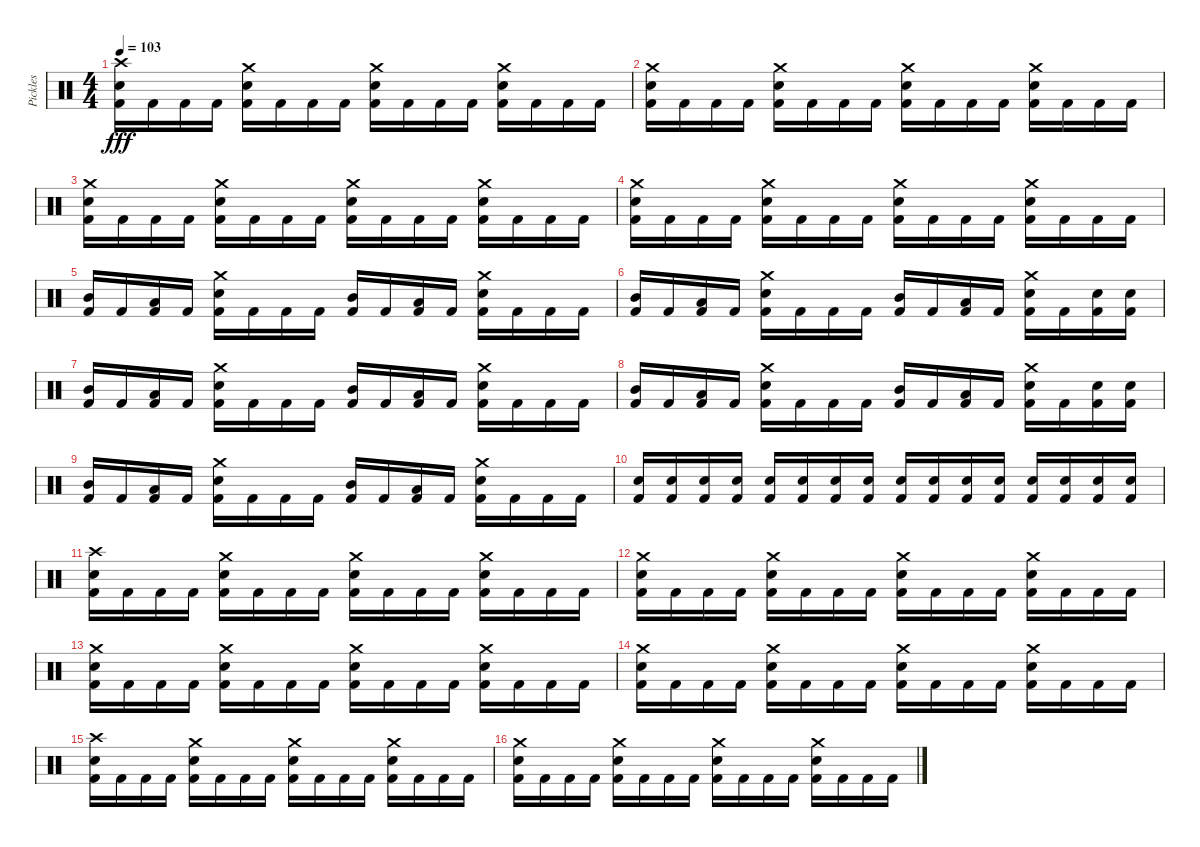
\track ("Pickles" "Pickles") {instrument percussion}
\staff {score}
\articulation defaults
\ts (4 4)
\tempo 103
\clef neutral
\ks c
("Crash high (hit)" "Electric Snare (hit)" "Kick (hit) 2").16{dy fff} "Kick (hit) 2".16 "Kick (hit) 2".16 "Kick (hit) 2".16 ("Crash medium (hit)" "Electric Snare (hit)" "Kick (hit) 2").16 "Kick (hit) 2".16 "Kick (hit) 2".16 "Kick (hit) 2".16 ("Crash medium (hit)" "Electric Snare (hit)" "Kick (hit) 2").16 "Kick (hit) 2".16 "Kick (hit) 2".16 "Kick (hit) 2".16 ("Crash medium (hit)" "Electric Snare (hit)" "Kick (hit) 2").16 "Kick (hit) 2".16 "Kick (hit) 2".16 "Kick (hit) 2".16 |
("Crash medium (hit)" "Electric Snare (hit)" "Kick (hit) 2").16 "Kick (hit) 2".16 "Kick (hit) 2".16 "Kick (hit) 2".16 ("Crash medium (hit)" "Electric Snare (hit)" "Kick (hit) 2").16 "Kick (hit) 2".16 "Kick (hit) 2".16 "Kick (hit) 2".16 ("Crash medium (hit)" "Electric Snare (hit)" "Kick (hit) 2").16 "Kick (hit) 2".16 "Kick (hit) 2".16 "Kick (hit) 2".16 ("Crash medium (hit)" "Electric Snare (hit)" "Kick (hit) 2").16 "Kick (hit) 2".16 "Kick (hit) 2".16 "Kick (hit) 2".16 |
("Crash medium (hit)" "Electric Snare (hit)" "Kick (hit) 2").16 "Kick (hit) 2".16 "Kick (hit) 2".16 "Kick (hit) 2".16 ("Crash medium (hit)" "Electric Snare (hit)" "Kick (hit) 2").16 "Kick (hit) 2".16 "Kick (hit) 2".16 "Kick (hit) 2".16 ("Crash medium (hit)" "Electric Snare (hit)" "Kick (hit) 2").16 "Kick (hit) 2".16 "Kick (hit) 2".16 "Kick (hit) 2".16 ("Crash medium (hit)" "Electric Snare (hit)" "Kick (hit) 2").16 "Kick (hit) 2".16 "Kick (hit) 2".16 "Kick (hit) 2".16 |
("Crash medium (hit)" "Electric Snare (hit)" "Kick (hit) 2").16 "Kick (hit) 2".16 "Kick (hit) 2".16 "Kick (hit) 2".16 ("Crash medium (hit)" "Electric Snare (hit)" "Kick (hit) 2").16 "Kick (hit) 2".16 "Kick (hit) 2".16 "Kick (hit) 2".16 ("Crash medium (hit)" "Electric Snare (hit)" "Kick (hit) 2").16 "Kick (hit) 2".16 "Kick (hit) 2".16 "Kick (hit) 2".16 ("Crash medium (hit)" "Electric Snare (hit)" "Kick (hit) 2").16 "Kick (hit) 2".16 "Kick (hit) 2".16 "Kick (hit) 2".16 |
("Mid Tom (hit)" "Kick (hit) 2").16 "Kick (hit) 2".16 ("Low Tom (hit)" "Kick (hit) 2").16 "Kick (hit) 2".16 ("Crash medium (hit)" "Electric Snare (hit)" "Kick (hit) 2").16 "Kick (hit) 2".16 "Kick (hit) 2".16 "Kick (hit) 2".16 ("Mid Tom (hit)" "Kick (hit) 2").16 "Kick (hit) 2".16 ("Low Tom (hit)" "Kick (hit) 2").16 "Kick (hit) 2".16 ("Crash medium (hit)" "Electric Snare (hit)" "Kick (hit) 2").16 "Kick (hit) 2".16 "Kick (hit) 2".16 "Kick (hit) 2".16 |
("Mid Tom (hit)" "Kick (hit) 2").16 "Kick (hit) 2".16 ("Low Tom (hit)" "Kick (hit) 2").16 "Kick (hit) 2".16 ("Crash medium (hit)" "Electric Snare (hit)" "Kick (hit) 2").16 "Kick (hit) 2".16 "Kick (hit) 2".16 "Kick (hit) 2".16 ("Mid Tom (hit)" "Kick (hit) 2").16 "Kick (hit) 2".16 ("Low Tom (hit)" "Kick (hit) 2").16 "Kick (hit) 2".16 ("Crash medium (hit)" "Electric Snare (hit)" "Kick (hit) 2").16 "Kick (hit) 2".16 ("Electric Snare (hit)" "Kick (hit) 2").16 ("Electric Snare (hit)" "Kick (hit) 2").16 |
("Mid Tom (hit)" "Kick (hit) 2").16 "Kick (hit) 2".16 ("Low Tom (hit)" "Kick (hit) 2").16 "Kick (hit) 2".16 ("Crash medium (hit)" "Electric Snare (hit)" "Kick (hit) 2").16 "Kick (hit) 2".16 "Kick (hit) 2".16 "Kick (hit) 2".16 ("Mid Tom (hit)" "Kick (hit) 2").16 "Kick (hit) 2".16 ("Low Tom (hit)" "Kick (hit) 2").16 "Kick (hit) 2".16 ("Crash medium (hit)" "Electric Snare (hit)" "Kick (hit) 2").16 "Kick (hit) 2".16 "Kick (hit) 2".16 "Kick (hit) 2".16 |
("Mid Tom (hit)" "Kick (hit) 2").16 "Kick (hit) 2".16 ("Low Tom (hit)" "Kick (hit) 2").16 "Kick (hit) 2".16 ("Crash medium (hit)" "Electric Snare (hit)" "Kick (hit) 2").16 "Kick (hit) 2".16 "Kick (hit) 2".16 "Kick (hit) 2".16 ("Mid Tom (hit)" "Kick (hit) 2").16 "Kick (hit) 2".16 ("Low Tom (hit)" "Kick (hit) 2").16 "Kick (hit) 2".16 ("Crash medium (hit)" "Electric Snare (hit)" "Kick (hit) 2").16 "Kick (hit) 2".16 ("Electric Snare (hit)" "Kick (hit) 2").16 ("Electric Snare (hit)" "Kick (hit) 2").16 |
("Mid Tom (hit)" "Kick (hit) 2").16 "Kick (hit) 2".16 ("Low Tom (hit)" "Kick (hit) 2").16 "Kick (hit) 2".16 ("Crash medium (hit)" "Electric Snare (hit)" "Kick (hit) 2").16 "Kick (hit) 2".16 "Kick (hit) 2".16 "Kick (hit) 2".16 ("Mid Tom (hit)" "Kick (hit) 2").16 "Kick (hit) 2".16 ("Low Tom (hit)" "Kick (hit) 2").16 "Kick (hit) 2".16 ("Crash medium (hit)" "Electric Snare (hit)" "Kick (hit) 2").16 "Kick (hit) 2".16 "Kick (hit) 2".16 "Kick (hit) 2".16 |
("Electric Snare (hit)" "Kick (hit) 2").16 ("Electric Snare (hit)" "Kick (hit) 2").16 ("Electric Snare (hit)" "Kick (hit) 2").16 ("Electric Snare (hit)" "Kick (hit) 2").16 ("Electric Snare (hit)" "Kick (hit) 2").16 ("Electric Snare (hit)" "Kick (hit) 2").16 ("Electric Snare (hit)" "Kick (hit) 2").16 ("Electric Snare (hit)" "Kick (hit) 2").16 ("Electric Snare (hit)" "Kick (hit) 2").16 ("Electric Snare (hit)" "Kick (hit) 2").16 ("Electric Snare (hit)" "Kick (hit) 2").16 ("Electric Snare (hit)" "Kick (hit) 2").16 ("Electric Snare (hit)" "Kick (hit) 2").16 ("Electric Snare (hit)" "Kick (hit) 2").16 ("Electric Snare (hit)" "Kick (hit) 2").16 ("Electric Snare (hit)" "Kick (hit) 2").16 |
("Crash high (hit)" "Electric Snare (hit)" "Kick (hit) 2").16 "Kick (hit) 2".16 "Kick (hit) 2".16 "Kick (hit) 2".16 ("Crash medium (hit)" "Electric Snare (hit)" "Kick (hit) 2").16 "Kick (hit) 2".16 "Kick (hit) 2".16 "Kick (hit) 2".16 ("Crash medium (hit)" "Electric Snare (hit)" "Kick (hit) 2").16 "Kick (hit) 2".16 "Kick (hit) 2".16 "Kick (hit) 2".16 ("Crash medium (hit)" "Electric Snare (hit)" "Kick (hit) 2").16 "Kick (hit) 2".16 "Kick (hit) 2".16 "Kick (hit) 2".16 |
("Crash medium (hit)" "Electric Snare (hit)" "Kick (hit) 2").16 "Kick (hit) 2".16 "Kick (hit) 2".16 "Kick (hit) 2".16 ("Crash medium (hit)" "Electric Snare (hit)" "Kick (hit) 2").16 "Kick (hit) 2".16 "Kick (hit) 2".16 "Kick (hit) 2".16 ("Crash medium (hit)" "Electric Snare (hit)" "Kick (hit) 2").16 "Kick (hit) 2".16 "Kick (hit) 2".16 "Kick (hit) 2".16 ("Crash medium (hit)" "Electric Snare (hit)" "Kick (hit) 2").16 "Kick (hit) 2".16 "Kick (hit) 2".16 "Kick (hit) 2".16 |
("Crash medium (hit)" "Electric Snare (hit)" "Kick (hit) 2").16 "Kick (hit) 2".16 "Kick (hit) 2".16 "Kick (hit) 2".16 ("Crash medium (hit)" "Electric Snare (hit)" "Kick (hit) 2").16 "Kick (hit) 2".16 "Kick (hit) 2".16 "Kick (hit) 2".16 ("Crash medium (hit)" "Electric Snare (hit)" "Kick (hit) 2").16 "Kick (hit) 2".16 "Kick (hit) 2".16 "Kick (hit) 2".16 ("Crash medium (hit)" "Electric Snare (hit)" "Kick (hit) 2").16 "Kick (hit) 2".16 "Kick (hit) 2".16 "Kick (hit) 2".16 |
("Crash medium (hit)" "Electric Snare (hit)" "Kick (hit) 2").16 "Kick (hit) 2".16 "Kick (hit) 2".16 "Kick (hit) 2".16 ("Crash medium (hit)" "Electric Snare (hit)" "Kick (hit) 2").16 "Kick (hit) 2".16 "Kick (hit) 2".16 "Kick (hit) 2".16 ("Crash medium (hit)" "Electric Snare (hit)" "Kick (hit) 2").16 "Kick (hit) 2".16 "Kick (hit) 2".16 "Kick (hit) 2".16 ("Crash medium (hit)" "Electric Snare (hit)" "Kick (hit) 2").16 "Kick (hit) 2".16 "Kick (hit) 2".16 "Kick (hit) 2".16 |
("Crash high (hit)" "Electric Snare (hit)" "Kick (hit) 2").16 "Kick (hit) 2".16 "Kick (hit) 2".16 "Kick (hit) 2".16 ("Crash medium (hit)" "Electric Snare (hit)" "Kick (hit) 2").16 "Kick (hit) 2".16 "Kick (hit) 2".16 "Kick (hit) 2".16 ("Crash medium (hit)" "Electric Snare (hit)" "Kick (hit) 2").16 "Kick (hit) 2".16 "Kick (hit) 2".16 "Kick (hit) 2".16 ("Crash medium (hit)" "Electric Snare (hit)" "Kick (hit) 2").16 "Kick (hit) 2".16 "Kick (hit) 2".16 "Kick (hit) 2".16 |
("Crash medium (hit)" "Electric Snare (hit)" "Kick (hit) 2").16 "Kick (hit) 2".16 "Kick (hit) 2".16 "Kick (hit) 2".16 ("Crash medium (hit)" "Electric Snare (hit)" "Kick (hit) 2").16 "Kick (hit) 2".16 "Kick (hit) 2".16 "Kick (hit) 2".16 ("Crash medium (hit)" "Electric Snare (hit)" "Kick (hit) 2").16 "Kick (hit) 2".16 "Kick (hit) 2".16 "Kick (hit) 2".16 ("Crash medium (hit)" "Electric Snare (hit)" "Kick (hit) 2").16 "Kick (hit) 2".16 "Kick (hit) 2".16 "Kick (hit) 2".16
